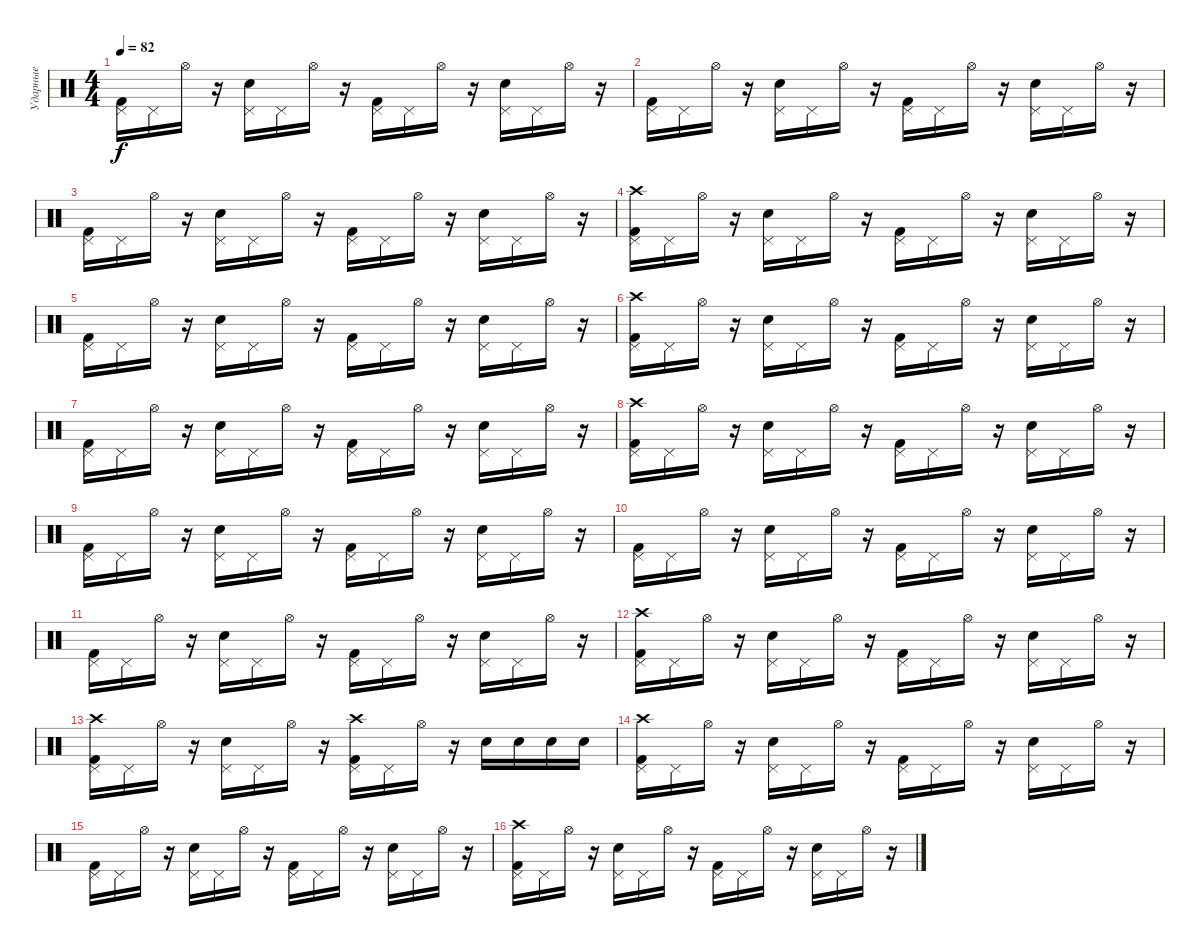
\track ("Ударные" "Ударные") {instrument percussion}
\staff {score}
\articulation defaults
\ts (4 4)
\tempo 82
\clef neutral
\ks c
("Pedal Hi-Hat (hit)" "Kick (hit) 2").16{dy f} "Pedal Hi-Hat (hit)".16 "Hi-Hat (open)".16 r.16 ("Pedal Hi-Hat (hit)" "Electric Snare (hit)").16 "Pedal Hi-Hat (hit)".16 "Hi-Hat (open)".16 r.16 ("Pedal Hi-Hat (hit)" "Kick (hit) 2").16 "Pedal Hi-Hat (hit)".16 "Hi-Hat (open)".16 r.16 ("Pedal Hi-Hat (hit)" "Electric Snare (hit)").16 "Pedal Hi-Hat (hit)".16 "Hi-Hat (open)".16 r.16 |
("Pedal Hi-Hat (hit)" "Kick (hit) 2").16 "Pedal Hi-Hat (hit)".16 "Hi-Hat (open)".16 r.16 ("Pedal Hi-Hat (hit)" "Electric Snare (hit)").16 "Pedal Hi-Hat (hit)".16 "Hi-Hat (open)".16 r.16 ("Pedal Hi-Hat (hit)" "Kick (hit) 2").16 "Pedal Hi-Hat (hit)".16 "Hi-Hat (open)".16 r.16 ("Pedal Hi-Hat (hit)" "Electric Snare (hit)").16 "Pedal Hi-Hat (hit)".16 "Hi-Hat (open)".16 r.16 |
("Pedal Hi-Hat (hit)" "Kick (hit) 2").16 "Pedal Hi-Hat (hit)".16 "Hi-Hat (open)".16 r.16 ("Pedal Hi-Hat (hit)" "Electric Snare (hit)").16 "Pedal Hi-Hat (hit)".16 "Hi-Hat (open)".16 r.16 ("Pedal Hi-Hat (hit)" "Kick (hit) 2").16 "Pedal Hi-Hat (hit)".16 "Hi-Hat (open)".16 r.16 ("Pedal Hi-Hat (hit)" "Electric Snare (hit)").16 "Pedal Hi-Hat (hit)".16 "Hi-Hat (open)".16 r.16 |
("Crash high (hit)" "Pedal Hi-Hat (hit)" "Kick (hit) 2").16 "Pedal Hi-Hat (hit)".16 "Hi-Hat (open)".16 r.16 ("Pedal Hi-Hat (hit)" "Electric Snare (hit)").16 "Pedal Hi-Hat (hit)".16 "Hi-Hat (open)".16 r.16 ("Pedal Hi-Hat (hit)" "Kick (hit) 2").16 "Pedal Hi-Hat (hit)".16 "Hi-Hat (open)".16 r.16 ("Pedal Hi-Hat (hit)" "Electric Snare (hit)").16 "Pedal Hi-Hat (hit)".16 "Hi-Hat (open)".16 r.16 |
("Pedal Hi-Hat (hit)" "Kick (hit) 2").16 "Pedal Hi-Hat (hit)".16 "Hi-Hat (open)".16 r.16 ("Pedal Hi-Hat (hit)" "Electric Snare (hit)").16 "Pedal Hi-Hat (hit)".16 "Hi-Hat (open)".16 r.16 ("Pedal Hi-Hat (hit)" "Kick (hit) 2").16 "Pedal Hi-Hat (hit)".16 "Hi-Hat (open)".16 r.16 ("Pedal Hi-Hat (hit)" "Electric Snare (hit)").16 "Pedal Hi-Hat (hit)".16 "Hi-Hat (open)".16 r.16 |
("Crash high (hit)" "Pedal Hi-Hat (hit)" "Kick (hit) 2").16 "Pedal Hi-Hat (hit)".16 "Hi-Hat (open)".16 r.16 ("Pedal Hi-Hat (hit)" "Electric Snare (hit)").16 "Pedal Hi-Hat (hit)".16 "Hi-Hat (open)".16 r.16 ("Pedal Hi-Hat (hit)" "Kick (hit) 2").16 "Pedal Hi-Hat (hit)".16 "Hi-Hat (open)".16 r.16 ("Pedal Hi-Hat (hit)" "Electric Snare (hit)").16 "Pedal Hi-Hat (hit)".16 "Hi-Hat (open)".16 r.16 |
("Pedal Hi-Hat (hit)" "Kick (hit) 2").16 "Pedal Hi-Hat (hit)".16 "Hi-Hat (open)".16 r.16 ("Pedal Hi-Hat (hit)" "Electric Snare (hit)").16 "Pedal Hi-Hat (hit)".16 "Hi-Hat (open)".16 r.16 ("Pedal Hi-Hat (hit)" "Kick (hit) 2").16 "Pedal Hi-Hat (hit)".16 "Hi-Hat (open)".16 r.16 ("Pedal Hi-Hat (hit)" "Electric Snare (hit)").16 "Pedal Hi-Hat (hit)".16 "Hi-Hat (open)".16 r.16 |
("Crash high (hit)" "Pedal Hi-Hat (hit)" "Kick (hit) 2").16 "Pedal Hi-Hat (hit)".16 "Hi-Hat (open)".16 r.16 ("Pedal Hi-Hat (hit)" "Electric Snare (hit)").16 "Pedal Hi-Hat (hit)".16 "Hi-Hat (open)".16 r.16 ("Pedal Hi-Hat (hit)" "Kick (hit) 2").16 "Pedal Hi-Hat (hit)".16 "Hi-Hat (open)".16 r.16 ("Pedal Hi-Hat (hit)" "Electric Snare (hit)").16 "Pedal Hi-Hat (hit)".16 "Hi-Hat (open)".16 r.16 |
("Pedal Hi-Hat (hit)" "Kick (hit) 2").16 "Pedal Hi-Hat (hit)".16 "Hi-Hat (open)".16 r.16 ("Pedal Hi-Hat (hit)" "Electric Snare (hit)").16 "Pedal Hi-Hat (hit)".16 "Hi-Hat (open)".16 r.16 ("Pedal Hi-Hat (hit)" "Kick (hit) 2").16 "Pedal Hi-Hat (hit)".16 "Hi-Hat (open)".16 r.16 ("Pedal Hi-Hat (hit)" "Electric Snare (hit)").16 "Pedal Hi-Hat (hit)".16 "Hi-Hat (open)".16 r.16 |
("Pedal Hi-Hat (hit)" "Kick (hit) 2").16 "Pedal Hi-Hat (hit)".16 "Hi-Hat (open)".16 r.16 ("Pedal Hi-Hat (hit)" "Electric Snare (hit)").16 "Pedal Hi-Hat (hit)".16 "Hi-Hat (open)".16 r.16 ("Pedal Hi-Hat (hit)" "Kick (hit) 2").16 "Pedal Hi-Hat (hit)".16 "Hi-Hat (open)".16 r.16 ("Pedal Hi-Hat (hit)" "Electric Snare (hit)").16 "Pedal Hi-Hat (hit)".16 "Hi-Hat (open)".16 r.16 |
("Pedal Hi-Hat (hit)" "Kick (hit) 2").16 "Pedal Hi-Hat (hit)".16 "Hi-Hat (open)".16 r.16 ("Pedal Hi-Hat (hit)" "Electric Snare (hit)").16 "Pedal Hi-Hat (hit)".16 "Hi-Hat (open)".16 r.16 ("Pedal Hi-Hat (hit)" "Kick (hit) 2").16 "Pedal Hi-Hat (hit)".16 "Hi-Hat (open)".16 r.16 ("Pedal Hi-Hat (hit)" "Electric Snare (hit)").16 "Pedal Hi-Hat (hit)".16 "Hi-Hat (open)".16 r.16 |
("Crash high (hit)" "Pedal Hi-Hat (hit)" "Kick (hit) 2").16 "Pedal Hi-Hat (hit)".16 "Hi-Hat (open)".16 r.16 ("Pedal Hi-Hat (hit)" "Electric Snare (hit)").16 "Pedal Hi-Hat (hit)".16 "Hi-Hat (open)".16 r.16 ("Pedal Hi-Hat (hit)" "Kick (hit) 2").16 "Pedal Hi-Hat (hit)".16 "Hi-Hat (open)".16 r.16 ("Pedal Hi-Hat (hit)" "Electric Snare (hit)").16 "Pedal Hi-Hat (hit)".16 "Hi-Hat (open)".16 r.16 |
("Crash high (hit)" "Pedal Hi-Hat (hit)" "Kick (hit) 2").16 "Pedal Hi-Hat (hit)".16 "Hi-Hat (open)".16 r.16 ("Pedal Hi-Hat (hit)" "Electric Snare (hit)").16 "Pedal Hi-Hat (hit)".16 "Hi-Hat (open)".16 r.16 ("Crash high (hit)" "Pedal Hi-Hat (hit)" "Kick (hit) 2").16 "Pedal Hi-Hat (hit)".16 "Hi-Hat (open)".16 r.16 "Electric Snare (hit)".16 "Electric Snare (hit)".16 "Electric Snare (hit)".16 "Electric Snare (hit)".16 |
("Crash high (hit)" "Pedal Hi-Hat (hit)" "Kick (hit) 2").16 "Pedal Hi-Hat (hit)".16 "Hi-Hat (open)".16 r.16 ("Pedal Hi-Hat (hit)" "Electric Snare (hit)").16 "Pedal Hi-Hat (hit)".16 "Hi-Hat (open)".16 r.16 ("Pedal Hi-Hat (hit)" "Kick (hit) 2").16 "Pedal Hi-Hat (hit)".16 "Hi-Hat (open)".16 r.16 ("Pedal Hi-Hat (hit)" "Electric Snare (hit)").16 "Pedal Hi-Hat (hit)".16 "Hi-Hat (open)".16 r.16 |
("Pedal Hi-Hat (hit)" "Kick (hit) 2").16 "Pedal Hi-Hat (hit)".16 "Hi-Hat (open)".16 r.16 ("Pedal Hi-Hat (hit)" "Electric Snare (hit)").16 "Pedal Hi-Hat (hit)".16 "Hi-Hat (open)".16 r.16 ("Pedal Hi-Hat (hit)" "Kick (hit) 2").16 "Pedal Hi-Hat (hit)".16 "Hi-Hat (open)".16 r.16 ("Pedal Hi-Hat (hit)" "Electric Snare (hit)").16 "Pedal Hi-Hat (hit)".16 "Hi-Hat (open)".16 r.16 |
("Crash high (hit)" "Pedal Hi-Hat (hit)" "Kick (hit) 2").16 "Pedal Hi-Hat (hit)".16 "Hi-Hat (open)".16 r.16 ("Pedal Hi-Hat (hit)" "Electric Snare (hit)").16 "Pedal Hi-Hat (hit)".16 "Hi-Hat (open)".16 r.16 ("Pedal Hi-Hat (hit)" "Kick (hit) 2").16 "Pedal Hi-Hat (hit)".16 "Hi-Hat (open)".16 r.16 ("Pedal Hi-Hat (hit)" "Electric Snare (hit)").16 "Pedal Hi-Hat (hit)".16 "Hi-Hat (open)".16 r.16
